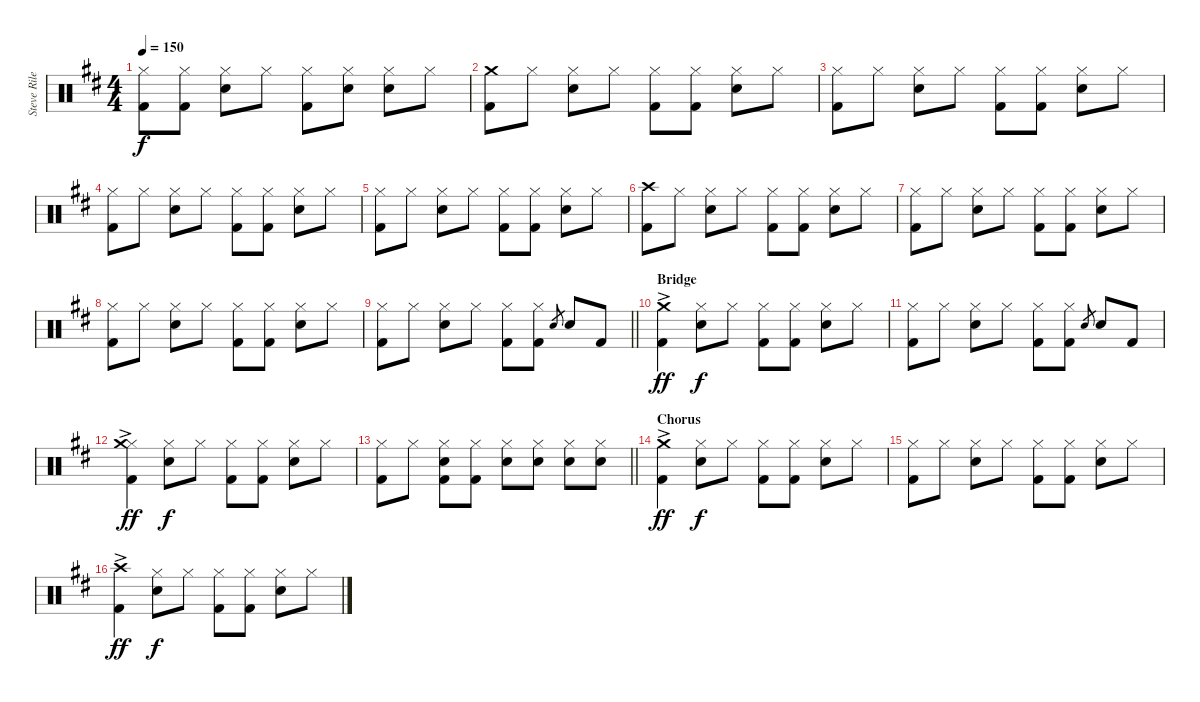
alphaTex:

\track ("Steve Riley" "Steve Rile") {instrument percussion}
\staff {score}
\articulation defaults
\ts (4 4)
\tempo 150
\clef neutral
\ks d
("Hi-Hat (closed)" "Kick (hit) 2").8{dy f} ("Hi-Hat (closed)" "Kick (hit) 2").8 ("Hi-Hat (closed)" "Electric Snare (hit)").8 "Hi-Hat (closed)".8 ("Hi-Hat (closed)" "Kick (hit) 2").8 ("Hi-Hat (closed)" "Electric Snare (hit)").8 ("Hi-Hat (closed)" "Electric Snare (hit)").8 "Hi-Hat (closed)".8 |
("Crash medium (hit)" "Kick (hit) 2").8 "Hi-Hat (closed)".8 ("Hi-Hat (closed)" "Electric Snare (hit)").8 "Hi-Hat (closed)".8 ("Hi-Hat (closed)" "Kick (hit) 2").8 ("Hi-Hat (closed)" "Kick (hit) 2").8 ("Hi-Hat (closed)" "Electric Snare (hit)").8 "Hi-Hat (closed)".8 |
("Hi-Hat (closed)" "Kick (hit) 2").8 "Hi-Hat (closed)".8 ("Hi-Hat (closed)" "Electric Snare (hit)").8 "Hi-Hat (closed)".8 ("Hi-Hat (closed)" "Kick (hit) 2").8 ("Hi-Hat (closed)" "Kick (hit) 2").8 ("Hi-Hat (closed)" "Electric Snare (hit)").8 "Hi-Hat (closed)".8 |
("Hi-Hat (closed)" "Kick (hit) 2").8 "Hi-Hat (closed)".8 ("Hi-Hat (closed)" "Electric Snare (hit)").8 "Hi-Hat (closed)".8 ("Hi-Hat (closed)" "Kick (hit) 2").8 ("Hi-Hat (closed)" "Kick (hit) 2").8 ("Hi-Hat (closed)" "Electric Snare (hit)").8 "Hi-Hat (closed)".8 |
("Hi-Hat (closed)" "Kick (hit) 2").8 "Hi-Hat (closed)".8 ("Hi-Hat (closed)" "Electric Snare (hit)").8 "Hi-Hat (closed)".8 ("Hi-Hat (closed)" "Kick (hit) 2").8 ("Hi-Hat (closed)" "Kick (hit) 2").8 ("Hi-Hat (closed)" "Electric Snare (hit)").8 "Hi-Hat (closed)".8 |
("Crash high (hit)" "Kick (hit) 2").8 "Hi-Hat (closed)".8 ("Hi-Hat (closed)" "Electric Snare (hit)").8 "Hi-Hat (closed)".8 ("Hi-Hat (closed)" "Kick (hit) 2").8 ("Hi-Hat (closed)" "Kick (hit) 2").8 ("Hi-Hat (closed)" "Electric Snare (hit)").8 "Hi-Hat (closed)".8 |
("Hi-Hat (closed)" "Kick (hit) 2").8 "Hi-Hat (closed)".8 ("Hi-Hat (closed)" "Electric Snare (hit)").8 "Hi-Hat (closed)".8 ("Hi-Hat (closed)" "Kick (hit) 2").8 ("Hi-Hat (closed)" "Kick (hit) 2").8 ("Hi-Hat (closed)" "Electric Snare (hit)").8 "Hi-Hat (closed)".8 |
("Hi-Hat (closed)" "Kick (hit) 2").8 "Hi-Hat (closed)".8 ("Hi-Hat (closed)" "Electric Snare (hit)").8 "Hi-Hat (closed)".8 ("Hi-Hat (closed)" "Kick (hit) 2").8 ("Hi-Hat (closed)" "Kick (hit) 2").8 ("Hi-Hat (closed)" "Electric Snare (hit)").8 "Hi-Hat (closed)".8 |
\barLineRight lightlight
("Hi-Hat (closed)" "Kick (hit) 2").8 "Hi-Hat (closed)".8 ("Hi-Hat (closed)" "Electric Snare (hit)").8 "Hi-Hat (closed)".8 ("Hi-Hat (closed)" "Kick (hit) 2").8 ("Hi-Hat (closed)" "Kick (hit) 2").8 "Electric Snare (hit)".8{gr} "Electric Snare (hit)".8 "Kick (hit) 2".8 |
\section ("" "Bridge")
("Crash medium (hit)"{ac} "Kick (hit) 2").4{dy ff} ("Hi-Hat (closed)" "Electric Snare (hit)").8{dy f} "Hi-Hat (closed)".8 ("Hi-Hat (closed)" "Kick (hit) 2").8 ("Hi-Hat (closed)" "Kick (hit) 2").8 ("Hi-Hat (closed)" "Electric Snare (hit)").8 "Hi-Hat (closed)".8 |
("Hi-Hat (closed)" "Kick (hit) 2").8 "Hi-Hat (closed)".8 ("Hi-Hat (closed)" "Electric Snare (hit)").8 "Hi-Hat (closed)".8 ("Hi-Hat (closed)" "Kick (hit) 2").8 ("Hi-Hat (closed)" "Kick (hit) 2").8 "Electric Snare (hit)".8{gr} "Electric Snare (hit)".8 "Kick (hit) 2".8 |
("Hi-Hat (closed)"{ac} "Crash medium (hit)" "Kick (hit) 2").4{dy ff} ("Hi-Hat (closed)" "Electric Snare (hit)").8{dy f} "Hi-Hat (closed)".8 ("Hi-Hat (closed)" "Kick (hit) 2").8 ("Hi-Hat (closed)" "Kick (hit) 2").8 ("Hi-Hat (closed)" "Electric Snare (hit)").8 "Hi-Hat (closed)".8 |
\barLineRight lightlight
("Hi-Hat (closed)" "Kick (hit) 2").8 "Hi-Hat (closed)".8 ("Hi-Hat (closed)" "Electric Snare (hit)" "Kick (hit) 2").8 ("Hi-Hat (closed)" "Kick (hit) 2").8 ("Hi-Hat (closed)" "Electric Snare (hit)").8 ("Hi-Hat (closed)" "Electric Snare (hit)").8 ("Hi-Hat (closed)" "Electric Snare (hit)").8 ("Hi-Hat (closed)" "Electric Snare (hit)").8 |
\section ("" "Chorus")
("Crash medium (hit)"{ac} "Kick (hit) 2").4{dy ff} ("Hi-Hat (closed)" "Electric Snare (hit)").8{dy f} "Hi-Hat (closed)".8 ("Hi-Hat (closed)" "Kick (hit) 2").8 ("Hi-Hat (closed)" "Kick (hit) 2").8 ("Hi-Hat (closed)" "Electric Snare (hit)").8 "Hi-Hat (closed)".8 |
("Hi-Hat (closed)" "Kick (hit) 2").8 "Hi-Hat (closed)".8 ("Hi-Hat (closed)" "Electric Snare (hit)").8 "Hi-Hat (closed)".8 ("Hi-Hat (closed)" "Kick (hit) 2").8 ("Hi-Hat (closed)" "Kick (hit) 2").8 ("Hi-Hat (closed)" "Electric Snare (hit)").8 "Hi-Hat (closed)".8 |
("Crash high (hit)"{ac} "Kick (hit) 2").4{dy ff} ("Hi-Hat (closed)" "Electric Snare (hit)").8{dy f} "Hi-Hat (closed)".8 ("Hi-Hat (closed)" "Kick (hit) 2").8 ("Hi-Hat (closed)" "Kick (hit) 2").8 ("Hi-Hat (closed)" "Electric Snare (hit)").8 "Hi-Hat (closed)".8
